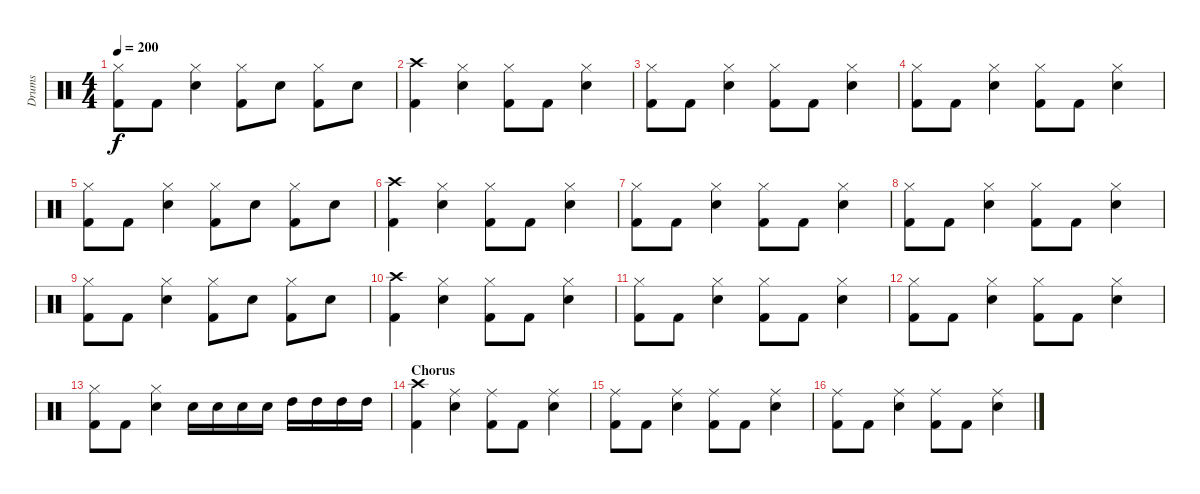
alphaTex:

\track ("Drums" "Drums") {instrument percussion}
\staff {score}
\articulation defaults
\ts (4 4)
\tempo 200
\clef neutral
\ks c
("Hi-Hat (closed)" "Kick (hit) 2").8{dy f} "Kick (hit) 2".8 ("Hi-Hat (closed)" "Electric Snare (hit)").4 ("Hi-Hat (closed)" "Kick (hit) 2").8 "Electric Snare (hit)".8 ("Hi-Hat (closed)" "Kick (hit) 2").8 "Electric Snare (hit)".8 |
("Crash high (hit)" "Kick (hit) 2").4 ("Hi-Hat (closed)" "Electric Snare (hit)").4 ("Hi-Hat (closed)" "Kick (hit) 2").8 "Kick (hit) 2".8 ("Hi-Hat (closed)" "Electric Snare (hit)").4 |
("Hi-Hat (closed)" "Kick (hit) 2").8 "Kick (hit) 2".8 ("Hi-Hat (closed)" "Electric Snare (hit)").4 ("Hi-Hat (closed)" "Kick (hit) 2").8 "Kick (hit) 2".8 ("Hi-Hat (closed)" "Electric Snare (hit)").4 |
("Hi-Hat (closed)" "Kick (hit) 2").8 "Kick (hit) 2".8 ("Hi-Hat (closed)" "Electric Snare (hit)").4 ("Hi-Hat (closed)" "Kick (hit) 2").8 "Kick (hit) 2".8 ("Hi-Hat (closed)" "Electric Snare (hit)").4 |
("Hi-Hat (closed)" "Kick (hit) 2").8 "Kick (hit) 2".8 ("Hi-Hat (closed)" "Electric Snare (hit)").4 ("Hi-Hat (closed)" "Kick (hit) 2").8 "Electric Snare (hit)".8 ("Hi-Hat (closed)" "Kick (hit) 2").8 "Electric Snare (hit)".8 |
("Crash high (hit)" "Kick (hit) 2").4 ("Hi-Hat (closed)" "Electric Snare (hit)").4 ("Hi-Hat (closed)" "Kick (hit) 2").8 "Kick (hit) 2".8 ("Hi-Hat (closed)" "Electric Snare (hit)").4 |
("Hi-Hat (closed)" "Kick (hit) 2").8 "Kick (hit) 2".8 ("Hi-Hat (closed)" "Electric Snare (hit)").4 ("Hi-Hat (closed)" "Kick (hit) 2").8 "Kick (hit) 2".8 ("Hi-Hat (closed)" "Electric Snare (hit)").4 |
("Hi-Hat (closed)" "Kick (hit) 2").8 "Kick (hit) 2".8 ("Hi-Hat (closed)" "Electric Snare (hit)").4 ("Hi-Hat (closed)" "Kick (hit) 2").8 "Kick (hit) 2".8 ("Hi-Hat (closed)" "Electric Snare (hit)").4 |
("Hi-Hat (closed)" "Kick (hit) 2").8 "Kick (hit) 2".8 ("Hi-Hat (closed)" "Electric Snare (hit)").4 ("Hi-Hat (closed)" "Kick (hit) 2").8 "Electric Snare (hit)".8 ("Hi-Hat (closed)" "Kick (hit) 2").8 "Electric Snare (hit)".8 |
("Crash high (hit)" "Kick (hit) 2").4 ("Hi-Hat (closed)" "Electric Snare (hit)").4 ("Hi-Hat (closed)" "Kick (hit) 2").8 "Kick (hit) 2".8 ("Hi-Hat (closed)" "Electric Snare (hit)").4 |
("Hi-Hat (closed)" "Kick (hit) 2").8 "Kick (hit) 2".8 ("Hi-Hat (closed)" "Electric Snare (hit)").4 ("Hi-Hat (closed)" "Kick (hit) 2").8 "Kick (hit) 2".8 ("Hi-Hat (closed)" "Electric Snare (hit)").4 |
("Hi-Hat (closed)" "Kick (hit) 2").8 "Kick (hit) 2".8 ("Hi-Hat (closed)" "Electric Snare (hit)").4 ("Hi-Hat (closed)" "Kick (hit) 2").8 "Kick (hit) 2".8 ("Hi-Hat (closed)" "Electric Snare (hit)").4 |
("Hi-Hat (closed)" "Kick (hit) 2").8 "Kick (hit) 2".8 ("Hi-Hat (closed)" "Electric Snare (hit)").4 "Electric Snare (hit)".16 "Electric Snare (hit)".16 "Electric Snare (hit)".16 "Electric Snare (hit)".16 "High Tom (hit)".16 "High Tom (hit)".16 "High Tom (hit)".16 "High Tom (hit)".16 |
\section ("" "Chorus")
("Crash high (hit)" "Kick (hit) 2").4 ("Ride (middle)" "Electric Snare (hit)").4 ("Ride (middle)" "Kick (hit) 2").8 "Kick (hit) 2".8 ("Ride (middle)" "Electric Snare (hit)").4 |
("Ride (middle)" "Kick (hit) 2").8 "Kick (hit) 2".8 ("Ride (middle)" "Electric Snare (hit)").4 ("Ride (middle)" "Kick (hit) 2").8 "Kick (hit) 2".8 ("Ride (middle)" "Electric Snare (hit)").4 |
("Ride (middle)" "Kick (hit) 2").8 "Kick (hit) 2".8 ("Ride (middle)" "Electric Snare (hit)").4 ("Ride (middle)" "Kick (hit) 2").8 "Kick (hit) 2".8 ("Ride (middle)" "Electric Snare (hit)").4
